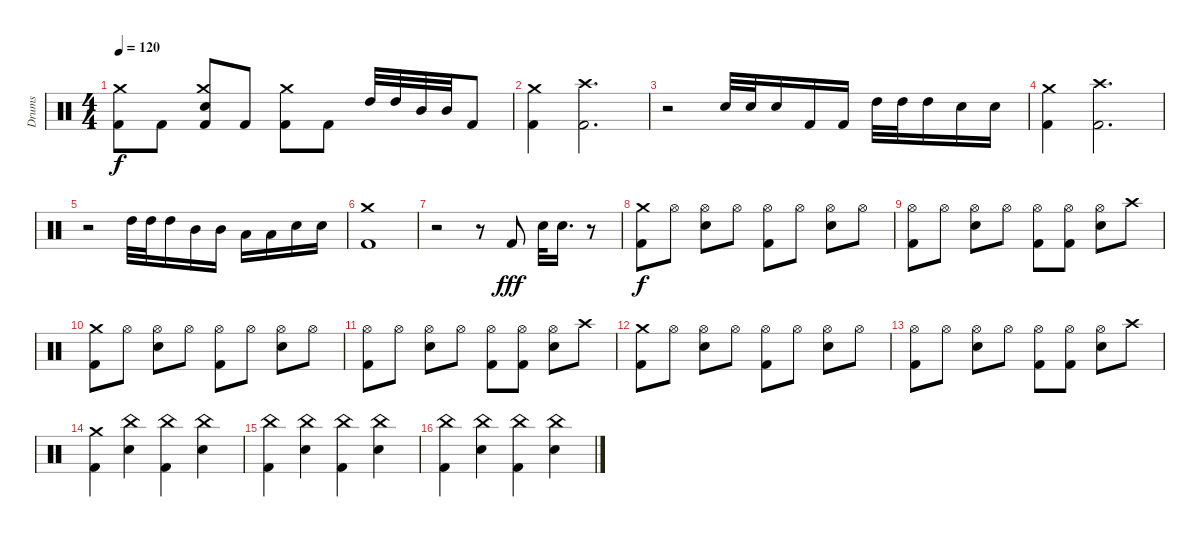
\track ("Drums" "Drums") {instrument percussion}
\staff {score}
\articulation defaults
\ts (4 4)
\tempo 120
\clef neutral
\ks c
("Kick (hit) 2" "Crash medium (hit)").8{dy f} "Kick (hit) 2".8 ("Kick (hit) 2" "Snare (hit) 2" "Crash medium (hit)").8 "Kick (hit) 2".8 ("Kick (hit) 2" "Crash medium (hit)").8 "Kick (hit) 2".8 "High Tom (hit)".32 "High Tom (hit)".32 "Mid Tom (hit)".32 "Mid Tom (hit)".32 "Kick (hit) 2".8 |
("Kick (hit) 2" "Crash medium (hit)").4 ("Kick (hit) 2" "Crash high (hit)").2{d} |
r.2 "Snare (hit) 2".32 "Snare (hit) 2".32 "Snare (hit) 2".16 "Kick (hit) 2".16 "Kick (hit) 2".16 "High Tom (hit)".32 "High Tom (hit)".32 "High Tom (hit)".16 "Snare (hit) 2".16 "Snare (hit) 2".16 |
("Kick (hit) 2" "Crash medium (hit)").4 ("Kick (hit) 2" "Crash high (hit)").2{d} |
r.2 "High Tom (hit)".32 "High Tom (hit)".32 "High Tom (hit)".16 "Mid Tom (hit)".16 "Mid Tom (hit)".16 "Low Tom (hit)".16 "Low Tom (hit)".16 "Snare (hit) 2".16 "Snare (hit) 2".16 |
("Kick (hit) 2" "Crash medium (hit)").1 |
r.2 r.8 "Kick (hit) 2".8{dy fff} "Snare (hit) 2".32 "Snare (hit) 2".16{d} r.8 |
("Kick (hit) 2" "Crash medium (hit)").8{dy f} "Hi-Hat (open)".8 ("Snare (hit) 2" "Hi-Hat (open)").8 "Hi-Hat (open)".8 ("Kick (hit) 2" "Hi-Hat (open)").8 "Hi-Hat (open)".8 ("Snare (hit) 2" "Hi-Hat (open)").8 "Hi-Hat (open)".8 |
("Kick (hit) 2" "Hi-Hat (open)").8 "Hi-Hat (open)".8 ("Snare (hit) 2" "Hi-Hat (open)").8 "Hi-Hat (open)".8 ("Kick (hit) 2" "Hi-Hat (open)").8 ("Kick (hit) 2" "Hi-Hat (open)").8 ("Snare (hit) 2" "Hi-Hat (open)").8 "Crash high (hit)".8 |
("Kick (hit) 2" "Crash medium (hit)").8 "Hi-Hat (open)".8 ("Snare (hit) 2" "Hi-Hat (open)").8 "Hi-Hat (open)".8 ("Kick (hit) 2" "Hi-Hat (open)").8 "Hi-Hat (open)".8 ("Snare (hit) 2" "Hi-Hat (open)").8 "Hi-Hat (open)".8 |
("Kick (hit) 2" "Hi-Hat (open)").8 "Hi-Hat (open)".8 ("Snare (hit) 2" "Hi-Hat (open)").8 "Hi-Hat (open)".8 ("Kick (hit) 2" "Hi-Hat (open)").8 ("Kick (hit) 2" "Hi-Hat (open)").8 ("Snare (hit) 2" "Hi-Hat (open)").8 "Crash high (hit)".8 |
("Kick (hit) 2" "Crash medium (hit)").8 "Hi-Hat (open)".8 ("Snare (hit) 2" "Hi-Hat (open)").8 "Hi-Hat (open)".8 ("Kick (hit) 2" "Hi-Hat (open)").8 "Hi-Hat (open)".8 ("Snare (hit) 2" "Hi-Hat (open)").8 "Hi-Hat (open)".8 |
("Kick (hit) 2" "Hi-Hat (open)").8 "Hi-Hat (open)".8 ("Snare (hit) 2" "Hi-Hat (open)").8 "Hi-Hat (open)".8 ("Kick (hit) 2" "Hi-Hat (open)").8 ("Kick (hit) 2" "Hi-Hat (open)").8 ("Snare (hit) 2" "Hi-Hat (open)").8 "Crash high (hit)".8 |
("Kick (hit) 2" "Crash medium (hit)").4 ("Snare (hit) 2" "China (hit)").4 ("Kick (hit) 2" "China (hit)").4 ("Snare (hit) 2" "China (hit)").4 |
("Kick (hit) 2" "China (hit)").4 ("Snare (hit) 2" "China (hit)").4 ("Kick (hit) 2" "China (hit)").4 ("Snare (hit) 2" "China (hit)").4 |
("Kick (hit) 2" "China (hit)").4 ("Snare (hit) 2" "China (hit)").4 ("Kick (hit) 2" "China (hit)").4 ("Snare (hit) 2" "China (hit)").4
